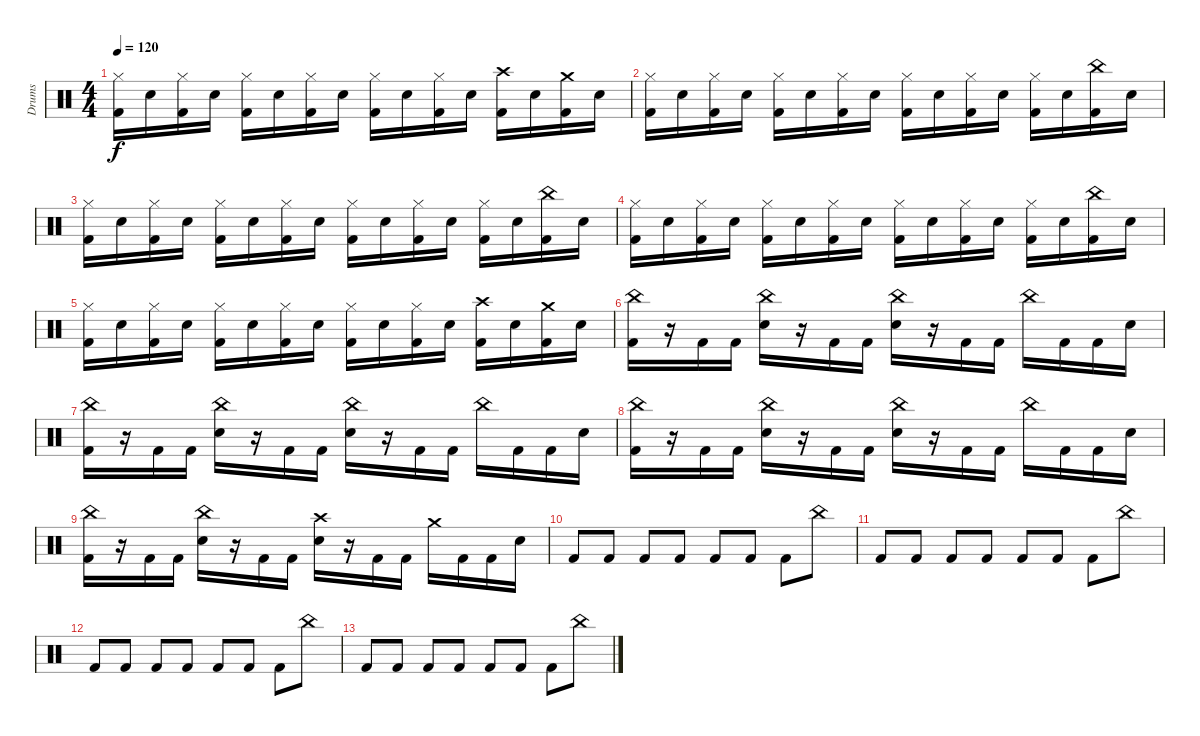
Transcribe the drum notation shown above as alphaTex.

\track ("Drums" "Drums") {instrument percussion}
\staff {score}
\articulation defaults
\ts (4 4)
\tempo 120
\clef neutral
\ks c
("Hi-Hat (closed)" "Kick (hit) 2").16{dy f} "Snare (hit) 2".16 ("Hi-Hat (closed)" "Kick (hit) 2").16 "Snare (hit) 2".16 ("Hi-Hat (closed)" "Kick (hit) 2").16 "Snare (hit) 2".16 ("Hi-Hat (closed)" "Kick (hit) 2").16 "Snare (hit) 2".16 ("Hi-Hat (closed)" "Kick (hit) 2").16 "Snare (hit) 2".16 ("Hi-Hat (closed)" "Kick (hit) 2").16 "Snare (hit) 2".16 ("Crash high (hit)" "Kick (hit) 2").16 "Snare (hit) 2".16 ("Crash medium (hit)" "Kick (hit) 2").16 "Snare (hit) 2".16 |
("Hi-Hat (closed)" "Kick (hit) 2").16 "Snare (hit) 2".16 ("Hi-Hat (closed)" "Kick (hit) 2").16 "Snare (hit) 2".16 ("Hi-Hat (closed)" "Kick (hit) 2").16 "Snare (hit) 2".16 ("Hi-Hat (closed)" "Kick (hit) 2").16 "Snare (hit) 2".16 ("Hi-Hat (closed)" "Kick (hit) 2").16 "Snare (hit) 2".16 ("Hi-Hat (closed)" "Kick (hit) 2").16 "Snare (hit) 2".16 ("Hi-Hat (closed)" "Kick (hit) 2").16 "Snare (hit) 2".16 ("China (hit)" "Kick (hit) 2").16 "Snare (hit) 2".16 |
("Hi-Hat (closed)" "Kick (hit) 2").16 "Snare (hit) 2".16 ("Hi-Hat (closed)" "Kick (hit) 2").16 "Snare (hit) 2".16 ("Hi-Hat (closed)" "Kick (hit) 2").16 "Snare (hit) 2".16 ("Hi-Hat (closed)" "Kick (hit) 2").16 "Snare (hit) 2".16 ("Hi-Hat (closed)" "Kick (hit) 2").16 "Snare (hit) 2".16 ("Hi-Hat (closed)" "Kick (hit) 2").16 "Snare (hit) 2".16 ("Hi-Hat (closed)" "Kick (hit) 2").16 "Snare (hit) 2".16 ("China (hit)" "Kick (hit) 2").16 "Snare (hit) 2".16 |
("Hi-Hat (closed)" "Kick (hit) 2").16 "Snare (hit) 2".16 ("Hi-Hat (closed)" "Kick (hit) 2").16 "Snare (hit) 2".16 ("Hi-Hat (closed)" "Kick (hit) 2").16 "Snare (hit) 2".16 ("Hi-Hat (closed)" "Kick (hit) 2").16 "Snare (hit) 2".16 ("Hi-Hat (closed)" "Kick (hit) 2").16 "Snare (hit) 2".16 ("Hi-Hat (closed)" "Kick (hit) 2").16 "Snare (hit) 2".16 ("Hi-Hat (closed)" "Kick (hit) 2").16 "Snare (hit) 2".16 ("China (hit)" "Kick (hit) 2").16 "Snare (hit) 2".16 |
("Hi-Hat (closed)" "Kick (hit) 2").16 "Snare (hit) 2".16 ("Hi-Hat (closed)" "Kick (hit) 2").16 "Snare (hit) 2".16 ("Hi-Hat (closed)" "Kick (hit) 2").16 "Snare (hit) 2".16 ("Hi-Hat (closed)" "Kick (hit) 2").16 "Snare (hit) 2".16 ("Hi-Hat (closed)" "Kick (hit) 2").16 "Snare (hit) 2".16 ("Hi-Hat (closed)" "Kick (hit) 2").16 "Snare (hit) 2".16 ("Crash high (hit)" "Kick (hit) 2").16 "Snare (hit) 2".16 ("Crash medium (hit)" "Kick (hit) 2").16 "Snare (hit) 2".16 |
("China (hit)" "Kick (hit) 2").16 r.16 "Kick (hit) 2".16 "Kick (hit) 2".16 ("China (hit)" "Snare (hit) 2").16 r.16 "Kick (hit) 2".16 "Kick (hit) 2".16 ("China (hit)" "Snare (hit) 2").16 r.16 "Kick (hit) 2".16 "Kick (hit) 2".16 "China (hit)".16 "Kick (hit) 2".16 "Kick (hit) 2".16 "Snare (hit) 2".16 |
("China (hit)" "Kick (hit) 2").16 r.16 "Kick (hit) 2".16 "Kick (hit) 2".16 ("China (hit)" "Snare (hit) 2").16 r.16 "Kick (hit) 2".16 "Kick (hit) 2".16 ("China (hit)" "Snare (hit) 2").16 r.16 "Kick (hit) 2".16 "Kick (hit) 2".16 "China (hit)".16 "Kick (hit) 2".16 "Kick (hit) 2".16 "Snare (hit) 2".16 |
("China (hit)" "Kick (hit) 2").16 r.16 "Kick (hit) 2".16 "Kick (hit) 2".16 ("China (hit)" "Snare (hit) 2").16 r.16 "Kick (hit) 2".16 "Kick (hit) 2".16 ("China (hit)" "Snare (hit) 2").16 r.16 "Kick (hit) 2".16 "Kick (hit) 2".16 "China (hit)".16 "Kick (hit) 2".16 "Kick (hit) 2".16 "Snare (hit) 2".16 |
("China (hit)" "Kick (hit) 2").16 r.16 "Kick (hit) 2".16 "Kick (hit) 2".16 ("China (hit)" "Snare (hit) 2").16 r.16 "Kick (hit) 2".16 "Kick (hit) 2".16 ("Crash high (hit)" "Snare (hit) 2").16 r.16 "Kick (hit) 2".16 "Kick (hit) 2".16 "Crash medium (hit)".16 "Kick (hit) 2".16 "Kick (hit) 2".16 "Snare (hit) 2".16 |
"Kick (hit) 2".8 "Kick (hit) 2".8 "Kick (hit) 2".8 "Kick (hit) 2".8 "Kick (hit) 2".8 "Kick (hit) 2".8 "Kick (hit) 2".8 "China (hit)".8 |
"Kick (hit) 2".8 "Kick (hit) 2".8 "Kick (hit) 2".8 "Kick (hit) 2".8 "Kick (hit) 2".8 "Kick (hit) 2".8 "Kick (hit) 2".8 "China (hit)".8 |
"Kick (hit) 2".8 "Kick (hit) 2".8 "Kick (hit) 2".8 "Kick (hit) 2".8 "Kick (hit) 2".8 "Kick (hit) 2".8 "Kick (hit) 2".8 "China (hit)".8 |
"Kick (hit) 2".8 "Kick (hit) 2".8 "Kick (hit) 2".8 "Kick (hit) 2".8 "Kick (hit) 2".8 "Kick (hit) 2".8 "Kick (hit) 2".8 "China (hit)".8
